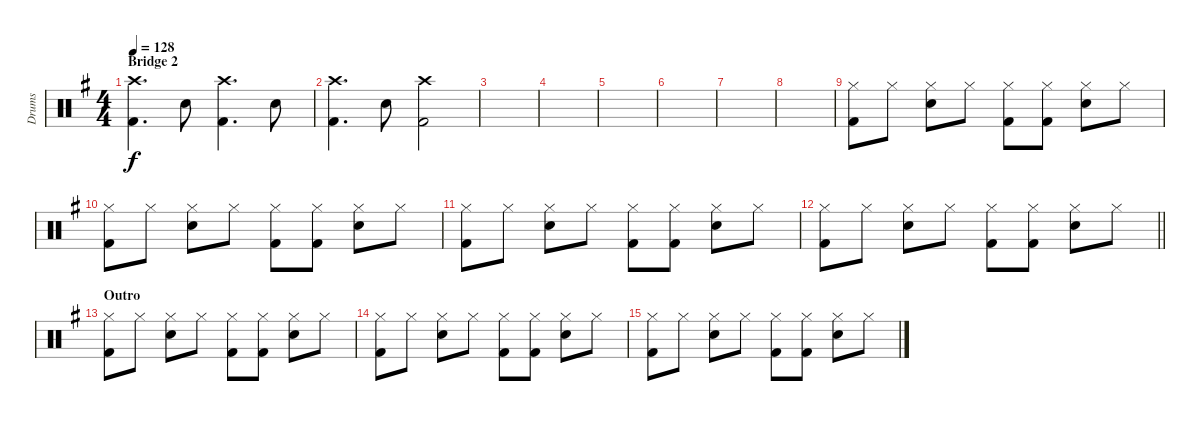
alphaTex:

\track ("Drums" "Drums") {instrument percussion}
\staff {score}
\articulation defaults
\ts (4 4)
\section ("" "Bridge 2")
\tempo 128
\clef neutral
\ks g
("Crash high (hit)" "Kick (hit) 2").4{d dy f} "Snare (hit) 2".8 ("Crash high (hit)" "Kick (hit) 2").4{d} "Snare (hit) 2".8 |
("Crash high (hit)" "Kick (hit) 2").4{d} "Snare (hit) 2".8 ("Crash high (hit)" "Kick (hit) 2").2 |
|
|
|
|
|
|
("Hi-Hat (closed)" "Kick (hit) 2").8 "Hi-Hat (closed)".8 ("Hi-Hat (closed)" "Snare (hit) 2").8 "Hi-Hat (closed)".8 ("Hi-Hat (closed)" "Kick (hit) 2").8 ("Hi-Hat (closed)" "Kick (hit) 2").8 ("Hi-Hat (closed)" "Snare (hit) 2").8 "Hi-Hat (closed)".8 |
("Hi-Hat (closed)" "Kick (hit) 2").8 "Hi-Hat (closed)".8 ("Hi-Hat (closed)" "Snare (hit) 2").8 "Hi-Hat (closed)".8 ("Hi-Hat (closed)" "Kick (hit) 2").8 ("Hi-Hat (closed)" "Kick (hit) 2").8 ("Hi-Hat (closed)" "Snare (hit) 2").8 "Hi-Hat (closed)".8 |
("Hi-Hat (closed)" "Kick (hit) 2").8 "Hi-Hat (closed)".8 ("Hi-Hat (closed)" "Snare (hit) 2").8 "Hi-Hat (closed)".8 ("Hi-Hat (closed)" "Kick (hit) 2").8 ("Hi-Hat (closed)" "Kick (hit) 2").8 ("Hi-Hat (closed)" "Snare (hit) 2").8 "Hi-Hat (closed)".8 |
\barLineRight lightlight
("Hi-Hat (closed)" "Kick (hit) 2").8 "Hi-Hat (closed)".8 ("Hi-Hat (closed)" "Snare (hit) 2").8 "Hi-Hat (closed)".8 ("Hi-Hat (closed)" "Kick (hit) 2").8 ("Hi-Hat (closed)" "Kick (hit) 2").8 ("Hi-Hat (closed)" "Snare (hit) 2").8 "Hi-Hat (closed)".8 |
\section ("" "Outro")
("Hi-Hat (closed)" "Kick (hit) 2").8 "Hi-Hat (closed)".8 ("Hi-Hat (closed)" "Snare (hit) 2").8 "Hi-Hat (closed)".8 ("Hi-Hat (closed)" "Kick (hit) 2").8 ("Hi-Hat (closed)" "Kick (hit) 2").8 ("Hi-Hat (closed)" "Snare (hit) 2").8 "Hi-Hat (closed)".8 |
("Hi-Hat (closed)" "Kick (hit) 2").8 "Hi-Hat (closed)".8 ("Hi-Hat (closed)" "Snare (hit) 2").8 "Hi-Hat (closed)".8 ("Hi-Hat (closed)" "Kick (hit) 2").8 ("Hi-Hat (closed)" "Kick (hit) 2").8 ("Hi-Hat (closed)" "Snare (hit) 2").8 "Hi-Hat (closed)".8 |
("Hi-Hat (closed)" "Kick (hit) 2").8 "Hi-Hat (closed)".8 ("Hi-Hat (closed)" "Snare (hit) 2").8 "Hi-Hat (closed)".8 ("Hi-Hat (closed)" "Kick (hit) 2").8 ("Hi-Hat (closed)" "Kick (hit) 2").8 ("Hi-Hat (closed)" "Snare (hit) 2").8 "Hi-Hat (closed)".8
